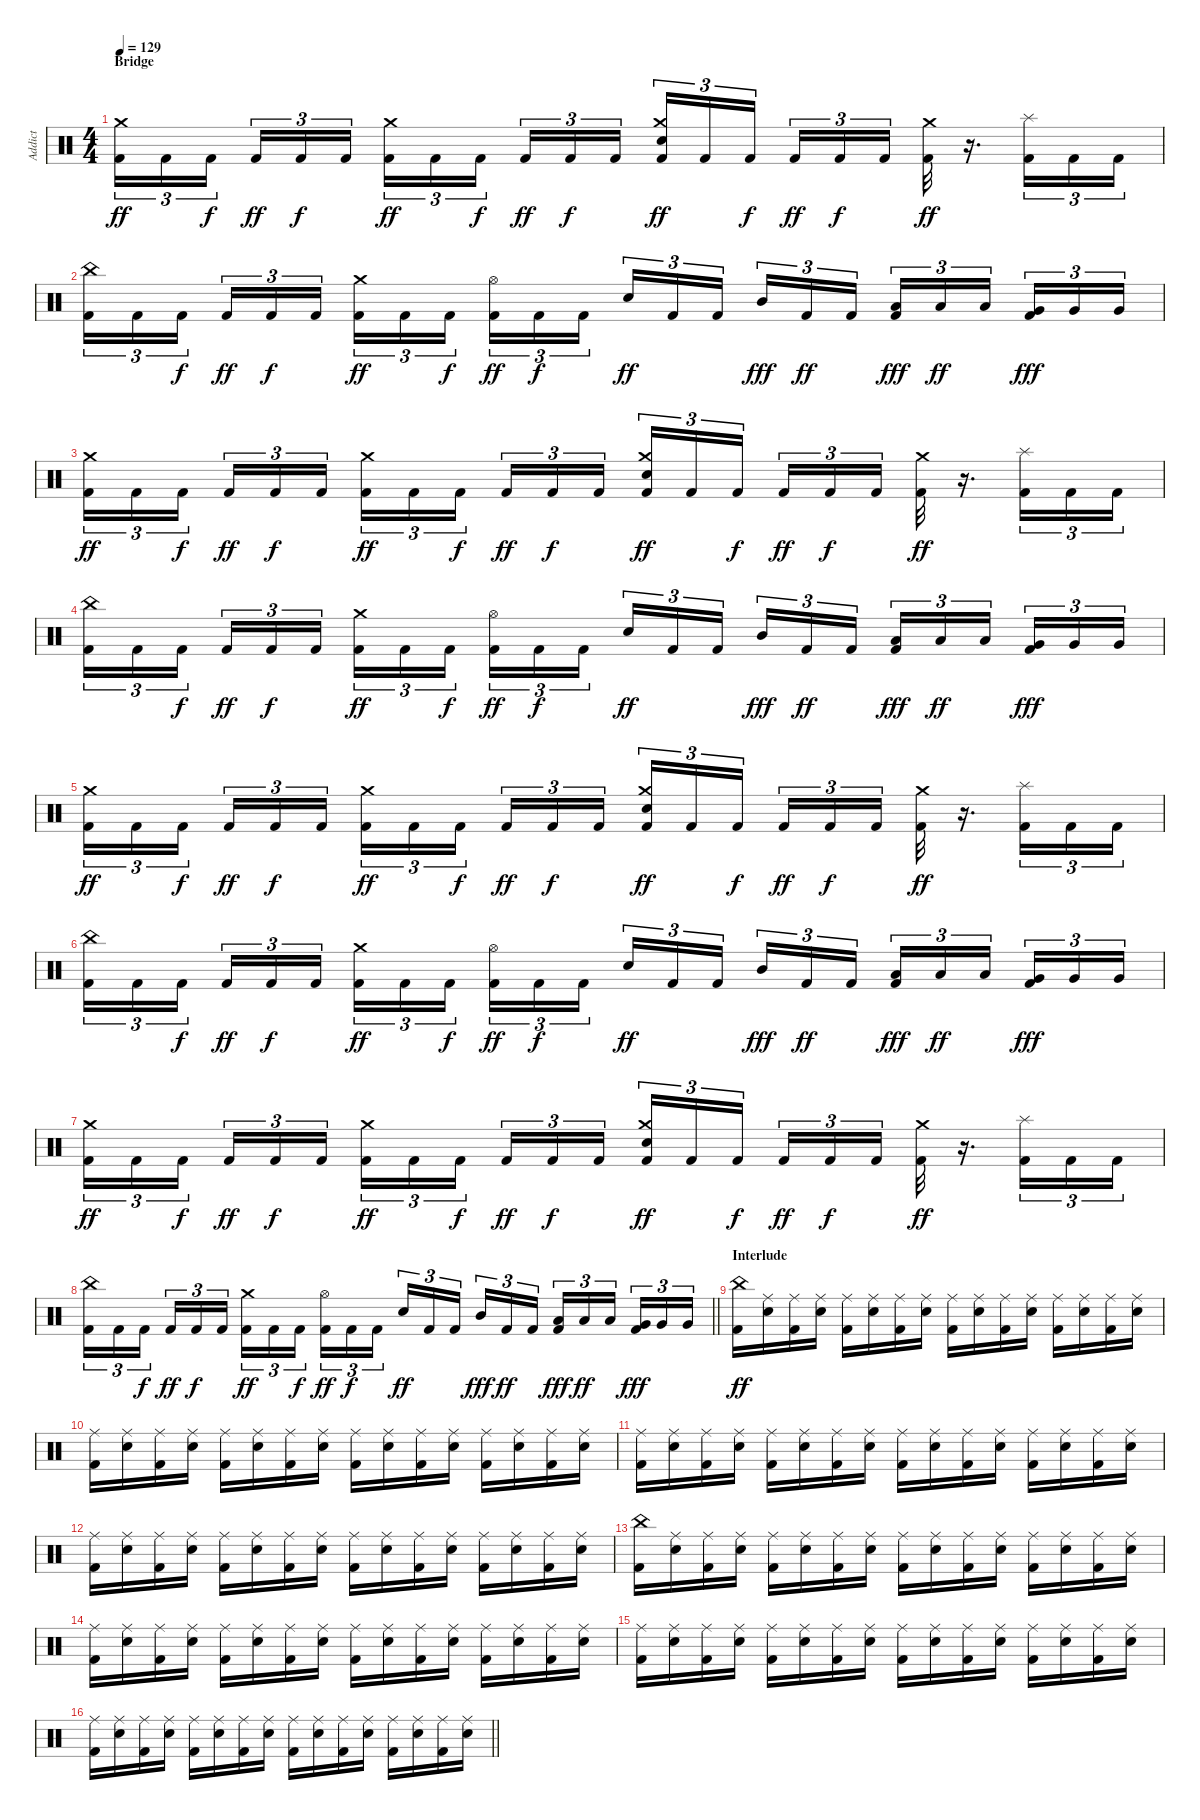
\track ("Addict" "Addict") {instrument percussion}
\staff {score}
\articulation defaults
\ts (4 4)
\section ("" "Bridge")
\tempo 129
\clef neutral
\ks c
("Kick (hit) 2" "Crash medium (hit)").16{tu (3 2) dy ff} "Kick (hit) 2".16{tu (3 2)} "Kick (hit) 2".16{tu (3 2) dy f beam splitsecondary} "Kick (hit) 2".16{tu (3 2) dy ff} "Kick (hit) 2".16{tu (3 2) dy f} "Kick (hit) 2".16{tu (3 2)} ("Kick (hit) 2" "Crash medium (hit)").16{tu (3 2) dy ff} "Kick (hit) 2".16{tu (3 2)} "Kick (hit) 2".16{tu (3 2) dy f beam splitsecondary} "Kick (hit) 2".16{tu (3 2) dy ff} "Kick (hit) 2".16{tu (3 2) dy f} "Kick (hit) 2".16{tu (3 2)} ("Kick (hit) 2" "Snare (hit) 2" "Crash medium (hit)").16{tu (3 2) dy ff} "Kick (hit) 2".16{tu (3 2)} "Kick (hit) 2".16{tu (3 2) dy f beam splitsecondary} "Kick (hit) 2".16{tu (3 2) dy ff} "Kick (hit) 2".16{tu (3 2) dy f} "Kick (hit) 2".16{tu (3 2)} ("Kick (hit) 2" "Crash medium (hit)").32{dy ff} r.16{d} ("Kick (hit) 2" "Splash (hit)").16{tu (3 2)} "Kick (hit) 2".16{tu (3 2)} "Kick (hit) 2".16{tu (3 2)} |
("Kick (hit) 2" "China (hit)").16{tu (3 2)} "Kick (hit) 2".16{tu (3 2)} "Kick (hit) 2".16{tu (3 2) dy f beam splitsecondary} "Kick (hit) 2".16{tu (3 2) dy ff} "Kick (hit) 2".16{tu (3 2) dy f} "Kick (hit) 2".16{tu (3 2)} ("Kick (hit) 2" "Crash medium (hit)").16{tu (3 2) dy ff} "Kick (hit) 2".16{tu (3 2)} "Kick (hit) 2".16{tu (3 2) dy f beam splitsecondary} ("Kick (hit) 2" "Hi-Hat (open)").16{tu (3 2) dy ff} "Kick (hit) 2".16{tu (3 2) dy f} "Kick (hit) 2".16{tu (3 2)} "Snare (hit) 2".16{tu (3 2) dy ff} "Kick (hit) 2".16{tu (3 2)} "Kick (hit) 2".16{tu (3 2) beam splitsecondary} "Mid Tom (hit)".16{tu (3 2) dy fff} "Kick (hit) 2".16{tu (3 2) dy ff} "Kick (hit) 2".16{tu (3 2)} ("Kick (hit) 2" "Low Tom (hit)").16{tu (3 2) dy fff} "Low Tom (hit)".16{tu (3 2) dy ff} "Low Tom (hit)".16{tu (3 2) beam splitsecondary} ("Kick (hit) 2" "Very Low Tom (hit)").16{tu (3 2) dy fff} "Very Low Tom (hit)".16{tu (3 2)} "Very Low Tom (hit)".16{tu (3 2)} |
("Kick (hit) 2" "Crash medium (hit)").16{tu (3 2) dy ff} "Kick (hit) 2".16{tu (3 2)} "Kick (hit) 2".16{tu (3 2) dy f beam splitsecondary} "Kick (hit) 2".16{tu (3 2) dy ff} "Kick (hit) 2".16{tu (3 2) dy f} "Kick (hit) 2".16{tu (3 2)} ("Kick (hit) 2" "Crash medium (hit)").16{tu (3 2) dy ff} "Kick (hit) 2".16{tu (3 2)} "Kick (hit) 2".16{tu (3 2) dy f beam splitsecondary} "Kick (hit) 2".16{tu (3 2) dy ff} "Kick (hit) 2".16{tu (3 2) dy f} "Kick (hit) 2".16{tu (3 2)} ("Kick (hit) 2" "Snare (hit) 2" "Crash medium (hit)").16{tu (3 2) dy ff} "Kick (hit) 2".16{tu (3 2)} "Kick (hit) 2".16{tu (3 2) dy f beam splitsecondary} "Kick (hit) 2".16{tu (3 2) dy ff} "Kick (hit) 2".16{tu (3 2) dy f} "Kick (hit) 2".16{tu (3 2)} ("Kick (hit) 2" "Crash medium (hit)").32{dy ff} r.16{d} ("Kick (hit) 2" "Splash (hit)").16{tu (3 2)} "Kick (hit) 2".16{tu (3 2)} "Kick (hit) 2".16{tu (3 2)} |
("Kick (hit) 2" "China (hit)").16{tu (3 2)} "Kick (hit) 2".16{tu (3 2)} "Kick (hit) 2".16{tu (3 2) dy f beam splitsecondary} "Kick (hit) 2".16{tu (3 2) dy ff} "Kick (hit) 2".16{tu (3 2) dy f} "Kick (hit) 2".16{tu (3 2)} ("Kick (hit) 2" "Crash medium (hit)").16{tu (3 2) dy ff} "Kick (hit) 2".16{tu (3 2)} "Kick (hit) 2".16{tu (3 2) dy f beam splitsecondary} ("Kick (hit) 2" "Hi-Hat (open)").16{tu (3 2) dy ff} "Kick (hit) 2".16{tu (3 2) dy f} "Kick (hit) 2".16{tu (3 2)} "Snare (hit) 2".16{tu (3 2) dy ff} "Kick (hit) 2".16{tu (3 2)} "Kick (hit) 2".16{tu (3 2) beam splitsecondary} "Mid Tom (hit)".16{tu (3 2) dy fff} "Kick (hit) 2".16{tu (3 2) dy ff} "Kick (hit) 2".16{tu (3 2)} ("Kick (hit) 2" "Low Tom (hit)").16{tu (3 2) dy fff} "Low Tom (hit)".16{tu (3 2) dy ff} "Low Tom (hit)".16{tu (3 2) beam splitsecondary} ("Kick (hit) 2" "Very Low Tom (hit)").16{tu (3 2) dy fff} "Very Low Tom (hit)".16{tu (3 2)} "Very Low Tom (hit)".16{tu (3 2)} |
("Kick (hit) 2" "Crash medium (hit)").16{tu (3 2) dy ff} "Kick (hit) 2".16{tu (3 2)} "Kick (hit) 2".16{tu (3 2) dy f beam splitsecondary} "Kick (hit) 2".16{tu (3 2) dy ff} "Kick (hit) 2".16{tu (3 2) dy f} "Kick (hit) 2".16{tu (3 2)} ("Kick (hit) 2" "Crash medium (hit)").16{tu (3 2) dy ff} "Kick (hit) 2".16{tu (3 2)} "Kick (hit) 2".16{tu (3 2) dy f beam splitsecondary} "Kick (hit) 2".16{tu (3 2) dy ff} "Kick (hit) 2".16{tu (3 2) dy f} "Kick (hit) 2".16{tu (3 2)} ("Kick (hit) 2" "Snare (hit) 2" "Crash medium (hit)").16{tu (3 2) dy ff} "Kick (hit) 2".16{tu (3 2)} "Kick (hit) 2".16{tu (3 2) dy f beam splitsecondary} "Kick (hit) 2".16{tu (3 2) dy ff} "Kick (hit) 2".16{tu (3 2) dy f} "Kick (hit) 2".16{tu (3 2)} ("Kick (hit) 2" "Crash medium (hit)").32{dy ff} r.16{d} ("Kick (hit) 2" "Splash (hit)").16{tu (3 2)} "Kick (hit) 2".16{tu (3 2)} "Kick (hit) 2".16{tu (3 2)} |
("Kick (hit) 2" "China (hit)").16{tu (3 2)} "Kick (hit) 2".16{tu (3 2)} "Kick (hit) 2".16{tu (3 2) dy f beam splitsecondary} "Kick (hit) 2".16{tu (3 2) dy ff} "Kick (hit) 2".16{tu (3 2) dy f} "Kick (hit) 2".16{tu (3 2)} ("Kick (hit) 2" "Crash medium (hit)").16{tu (3 2) dy ff} "Kick (hit) 2".16{tu (3 2)} "Kick (hit) 2".16{tu (3 2) dy f beam splitsecondary} ("Kick (hit) 2" "Hi-Hat (open)").16{tu (3 2) dy ff} "Kick (hit) 2".16{tu (3 2) dy f} "Kick (hit) 2".16{tu (3 2)} "Snare (hit) 2".16{tu (3 2) dy ff} "Kick (hit) 2".16{tu (3 2)} "Kick (hit) 2".16{tu (3 2) beam splitsecondary} "Mid Tom (hit)".16{tu (3 2) dy fff} "Kick (hit) 2".16{tu (3 2) dy ff} "Kick (hit) 2".16{tu (3 2)} ("Kick (hit) 2" "Low Tom (hit)").16{tu (3 2) dy fff} "Low Tom (hit)".16{tu (3 2) dy ff} "Low Tom (hit)".16{tu (3 2) beam splitsecondary} ("Kick (hit) 2" "Very Low Tom (hit)").16{tu (3 2) dy fff} "Very Low Tom (hit)".16{tu (3 2)} "Very Low Tom (hit)".16{tu (3 2)} |
("Kick (hit) 2" "Crash medium (hit)").16{tu (3 2) dy ff} "Kick (hit) 2".16{tu (3 2)} "Kick (hit) 2".16{tu (3 2) dy f beam splitsecondary} "Kick (hit) 2".16{tu (3 2) dy ff} "Kick (hit) 2".16{tu (3 2) dy f} "Kick (hit) 2".16{tu (3 2)} ("Kick (hit) 2" "Crash medium (hit)").16{tu (3 2) dy ff} "Kick (hit) 2".16{tu (3 2)} "Kick (hit) 2".16{tu (3 2) dy f beam splitsecondary} "Kick (hit) 2".16{tu (3 2) dy ff} "Kick (hit) 2".16{tu (3 2) dy f} "Kick (hit) 2".16{tu (3 2)} ("Kick (hit) 2" "Snare (hit) 2" "Crash medium (hit)").16{tu (3 2) dy ff} "Kick (hit) 2".16{tu (3 2)} "Kick (hit) 2".16{tu (3 2) dy f beam splitsecondary} "Kick (hit) 2".16{tu (3 2) dy ff} "Kick (hit) 2".16{tu (3 2) dy f} "Kick (hit) 2".16{tu (3 2)} ("Kick (hit) 2" "Crash medium (hit)").32{dy ff} r.16{d} ("Kick (hit) 2" "Splash (hit)").16{tu (3 2)} "Kick (hit) 2".16{tu (3 2)} "Kick (hit) 2".16{tu (3 2)} |
\barLineRight lightlight
("Kick (hit) 2" "China (hit)").16{tu (3 2)} "Kick (hit) 2".16{tu (3 2)} "Kick (hit) 2".16{tu (3 2) dy f beam splitsecondary} "Kick (hit) 2".16{tu (3 2) dy ff} "Kick (hit) 2".16{tu (3 2) dy f} "Kick (hit) 2".16{tu (3 2)} ("Kick (hit) 2" "Crash medium (hit)").16{tu (3 2) dy ff} "Kick (hit) 2".16{tu (3 2)} "Kick (hit) 2".16{tu (3 2) dy f beam splitsecondary} ("Kick (hit) 2" "Hi-Hat (open)").16{tu (3 2) dy ff} "Kick (hit) 2".16{tu (3 2) dy f} "Kick (hit) 2".16{tu (3 2)} "Snare (hit) 2".16{tu (3 2) dy ff} "Kick (hit) 2".16{tu (3 2)} "Kick (hit) 2".16{tu (3 2) beam splitsecondary} "Mid Tom (hit)".16{tu (3 2) dy fff} "Kick (hit) 2".16{tu (3 2) dy ff} "Kick (hit) 2".16{tu (3 2)} ("Kick (hit) 2" "Low Tom (hit)").16{tu (3 2) dy fff} "Low Tom (hit)".16{tu (3 2) dy ff} "Low Tom (hit)".16{tu (3 2) beam splitsecondary} ("Kick (hit) 2" "Very Low Tom (hit)").16{tu (3 2) dy fff} "Very Low Tom (hit)".16{tu (3 2)} "Very Low Tom (hit)".16{tu (3 2)} |
\section ("" "Interlude")
("Kick (hit) 2" "China (hit)").16{dy ff} ("Snare (hit) 2" "Ride (middle)").16 ("Kick (hit) 2" "Ride (middle)").16 ("Snare (hit) 2" "Ride (middle)").16 ("Kick (hit) 2" "Ride (middle)").16 ("Snare (hit) 2" "Ride (middle)").16 ("Kick (hit) 2" "Ride (middle)").16 ("Snare (hit) 2" "Ride (middle)").16 ("Kick (hit) 2" "Ride (middle)").16 ("Snare (hit) 2" "Ride (middle)").16 ("Kick (hit) 2" "Ride (middle)").16 ("Snare (hit) 2" "Ride (middle)").16 ("Kick (hit) 2" "Ride (middle)").16 ("Snare (hit) 2" "Ride (middle)").16 ("Kick (hit) 2" "Ride (middle)").16 ("Snare (hit) 2" "Ride (middle)").16 |
("Kick (hit) 2" "Ride (middle)").16 ("Snare (hit) 2" "Ride (middle)").16 ("Kick (hit) 2" "Ride (middle)").16 ("Snare (hit) 2" "Ride (middle)").16 ("Kick (hit) 2" "Ride (middle)").16 ("Snare (hit) 2" "Ride (middle)").16 ("Kick (hit) 2" "Ride (middle)").16 ("Snare (hit) 2" "Ride (middle)").16 ("Kick (hit) 2" "Ride (middle)").16 ("Snare (hit) 2" "Ride (middle)").16 ("Kick (hit) 2" "Ride (middle)").16 ("Snare (hit) 2" "Ride (middle)").16 ("Kick (hit) 2" "Ride (middle)").16 ("Snare (hit) 2" "Ride (middle)").16 ("Kick (hit) 2" "Ride (middle)").16 ("Snare (hit) 2" "Ride (middle)").16 |
("Kick (hit) 2" "Ride (middle)").16 ("Snare (hit) 2" "Ride (middle)").16 ("Kick (hit) 2" "Ride (middle)").16 ("Snare (hit) 2" "Ride (middle)").16 ("Kick (hit) 2" "Ride (middle)").16 ("Snare (hit) 2" "Ride (middle)").16 ("Kick (hit) 2" "Ride (middle)").16 ("Snare (hit) 2" "Ride (middle)").16 ("Kick (hit) 2" "Ride (middle)").16 ("Snare (hit) 2" "Ride (middle)").16 ("Kick (hit) 2" "Ride (middle)").16 ("Snare (hit) 2" "Ride (middle)").16 ("Kick (hit) 2" "Ride (middle)").16 ("Snare (hit) 2" "Ride (middle)").16 ("Kick (hit) 2" "Ride (middle)").16 ("Snare (hit) 2" "Ride (middle)").16 |
("Kick (hit) 2" "Ride (middle)").16 ("Snare (hit) 2" "Ride (middle)").16 ("Kick (hit) 2" "Ride (middle)").16 ("Snare (hit) 2" "Ride (middle)").16 ("Kick (hit) 2" "Ride (middle)").16 ("Snare (hit) 2" "Ride (middle)").16 ("Kick (hit) 2" "Ride (middle)").16 ("Snare (hit) 2" "Ride (middle)").16 ("Kick (hit) 2" "Ride (middle)").16 ("Snare (hit) 2" "Ride (middle)").16 ("Kick (hit) 2" "Ride (middle)").16 ("Snare (hit) 2" "Ride (middle)").16 ("Kick (hit) 2" "Ride (middle)").16 ("Snare (hit) 2" "Ride (middle)").16 ("Kick (hit) 2" "Ride (middle)").16 ("Snare (hit) 2" "Ride (middle)").16 |
("Kick (hit) 2" "China (hit)").16 ("Snare (hit) 2" "Ride (middle)").16 ("Kick (hit) 2" "Ride (middle)").16 ("Snare (hit) 2" "Ride (middle)").16 ("Kick (hit) 2" "Ride (middle)").16 ("Snare (hit) 2" "Ride (middle)").16 ("Kick (hit) 2" "Ride (middle)").16 ("Snare (hit) 2" "Ride (middle)").16 ("Kick (hit) 2" "Ride (middle)").16 ("Snare (hit) 2" "Ride (middle)").16 ("Kick (hit) 2" "Ride (middle)").16 ("Snare (hit) 2" "Ride (middle)").16 ("Kick (hit) 2" "Ride (middle)").16 ("Snare (hit) 2" "Ride (middle)").16 ("Kick (hit) 2" "Ride (middle)").16 ("Snare (hit) 2" "Ride (middle)").16 |
("Kick (hit) 2" "Ride (middle)").16 ("Snare (hit) 2" "Ride (middle)").16 ("Kick (hit) 2" "Ride (middle)").16 ("Snare (hit) 2" "Ride (middle)").16 ("Kick (hit) 2" "Ride (middle)").16 ("Snare (hit) 2" "Ride (middle)").16 ("Kick (hit) 2" "Ride (middle)").16 ("Snare (hit) 2" "Ride (middle)").16 ("Kick (hit) 2" "Ride (middle)").16 ("Snare (hit) 2" "Ride (middle)").16 ("Kick (hit) 2" "Ride (middle)").16 ("Snare (hit) 2" "Ride (middle)").16 ("Kick (hit) 2" "Ride (middle)").16 ("Snare (hit) 2" "Ride (middle)").16 ("Kick (hit) 2" "Ride (middle)").16 ("Snare (hit) 2" "Ride (middle)").16 |
("Kick (hit) 2" "Ride (middle)").16 ("Snare (hit) 2" "Ride (middle)").16 ("Kick (hit) 2" "Ride (middle)").16 ("Snare (hit) 2" "Ride (middle)").16 ("Kick (hit) 2" "Ride (middle)").16 ("Snare (hit) 2" "Ride (middle)").16 ("Kick (hit) 2" "Ride (middle)").16 ("Snare (hit) 2" "Ride (middle)").16 ("Kick (hit) 2" "Ride (middle)").16 ("Snare (hit) 2" "Ride (middle)").16 ("Kick (hit) 2" "Ride (middle)").16 ("Snare (hit) 2" "Ride (middle)").16 ("Kick (hit) 2" "Ride (middle)").16 ("Snare (hit) 2" "Ride (middle)").16 ("Kick (hit) 2" "Ride (middle)").16 ("Snare (hit) 2" "Ride (middle)").16 |
\barLineRight lightlight
("Kick (hit) 2" "Ride (middle)").16 ("Snare (hit) 2" "Ride (middle)").16 ("Kick (hit) 2" "Ride (middle)").16 ("Snare (hit) 2" "Ride (middle)").16 ("Kick (hit) 2" "Ride (middle)").16 ("Snare (hit) 2" "Ride (middle)").16 ("Kick (hit) 2" "Ride (middle)").16 ("Snare (hit) 2" "Ride (middle)").16 ("Kick (hit) 2" "Ride (middle)").16 ("Snare (hit) 2" "Ride (middle)").16 ("Kick (hit) 2" "Ride (middle)").16 ("Snare (hit) 2" "Ride (middle)").16 ("Kick (hit) 2" "Ride (middle)").16 ("Snare (hit) 2" "Ride (middle)").16 ("Kick (hit) 2" "Ride (middle)").16 ("Snare (hit) 2" "Ride (middle)").16
